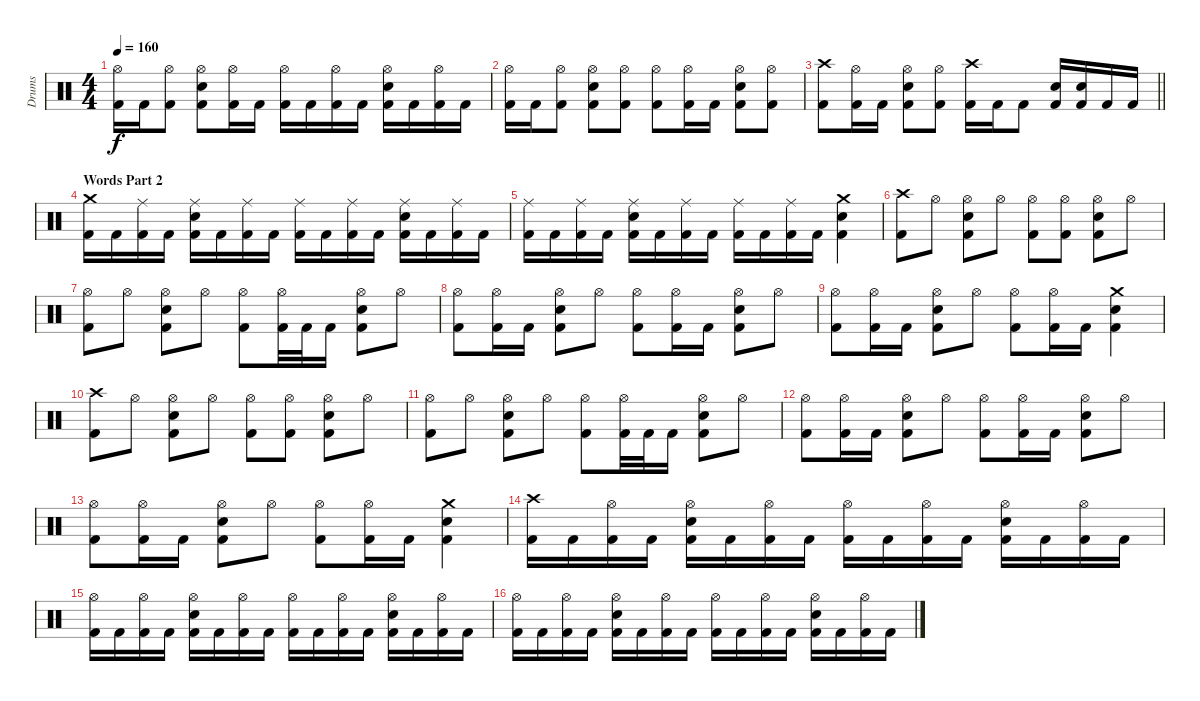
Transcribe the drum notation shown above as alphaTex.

\track ("Drums" "Drums") {instrument percussion}
\staff {score}
\articulation defaults
\ts (4 4)
\tempo 160
\clef neutral
\ks c
("Hi-Hat (open)" "Kick (hit) 2").16{dy f} "Kick (hit) 2".16 ("Hi-Hat (open)" "Kick (hit) 2").8 ("Hi-Hat (open)" "Snare (hit) 2" "Kick (hit) 2").8 ("Hi-Hat (open)" "Kick (hit) 2").16 "Kick (hit) 2".16 ("Hi-Hat (open)" "Kick (hit) 2").16 "Kick (hit) 2".16 ("Hi-Hat (open)" "Kick (hit) 2").16 "Kick (hit) 2".16 ("Hi-Hat (open)" "Snare (hit) 2" "Kick (hit) 2").16 "Kick (hit) 2".16 ("Hi-Hat (open)" "Kick (hit) 2").16 "Kick (hit) 2".16 |
("Hi-Hat (open)" "Kick (hit) 2").16 "Kick (hit) 2".16 ("Hi-Hat (open)" "Kick (hit) 2").8 ("Hi-Hat (open)" "Snare (hit) 2" "Kick (hit) 2").8 ("Hi-Hat (open)" "Kick (hit) 2").8 ("Hi-Hat (open)" "Kick (hit) 2").8 ("Hi-Hat (open)" "Kick (hit) 2").16 "Kick (hit) 2".16 ("Hi-Hat (open)" "Snare (hit) 2" "Kick (hit) 2").8 ("Hi-Hat (open)" "Kick (hit) 2").8 |
\barLineRight lightlight
("Crash high (hit)" "Kick (hit) 2").8 ("Hi-Hat (open)" "Kick (hit) 2").16 "Kick (hit) 2".16 ("Hi-Hat (open)" "Snare (hit) 2" "Kick (hit) 2").8 ("Hi-Hat (open)" "Kick (hit) 2").8 ("Crash high (hit)" "Kick (hit) 2").16 "Kick (hit) 2".16 "Kick (hit) 2".8 ("Snare (hit) 2" "Kick (hit) 2").16 ("Snare (hit) 2" "Kick (hit) 2").16 "Kick (hit) 2".16 "Kick (hit) 2".16 |
\section ("" "Words Part 2")
("Crash medium (hit)" "Kick (hit) 2").16 "Kick (hit) 2".16 ("Ride (middle)" "Kick (hit) 2").16 "Kick (hit) 2".16 ("Ride (middle)" "Snare (hit) 2" "Kick (hit) 2").16 "Kick (hit) 2".16 ("Ride (middle)" "Kick (hit) 2").16 "Kick (hit) 2".16 ("Ride (middle)" "Kick (hit) 2").16 "Kick (hit) 2".16 ("Ride (middle)" "Kick (hit) 2").16 "Kick (hit) 2".16 ("Ride (middle)" "Snare (hit) 2" "Kick (hit) 2").16 "Kick (hit) 2".16 ("Ride (middle)" "Kick (hit) 2").16 "Kick (hit) 2".16 |
("Ride (middle)" "Kick (hit) 2").16 "Kick (hit) 2".16 ("Ride (middle)" "Kick (hit) 2").16 "Kick (hit) 2".16 ("Ride (middle)" "Snare (hit) 2" "Kick (hit) 2").16 "Kick (hit) 2".16 ("Ride (middle)" "Kick (hit) 2").16 "Kick (hit) 2".16 ("Ride (middle)" "Kick (hit) 2").16 "Kick (hit) 2".16 ("Ride (middle)" "Kick (hit) 2").16 "Kick (hit) 2".16 ("Crash medium (hit)" "Snare (hit) 2" "Kick (hit) 2").4 |
("Crash high (hit)" "Kick (hit) 2").8 "Hi-Hat (open)".8 ("Hi-Hat (open)" "Snare (hit) 2" "Kick (hit) 2").8 "Hi-Hat (open)".8 ("Hi-Hat (open)" "Kick (hit) 2").8 ("Hi-Hat (open)" "Kick (hit) 2").8 ("Hi-Hat (open)" "Snare (hit) 2" "Kick (hit) 2").8 "Hi-Hat (open)".8 |
("Hi-Hat (open)" "Kick (hit) 2").8 "Hi-Hat (open)".8 ("Hi-Hat (open)" "Snare (hit) 2" "Kick (hit) 2").8 "Hi-Hat (open)".8 ("Hi-Hat (open)" "Kick (hit) 2").8 ("Hi-Hat (open)" "Kick (hit) 2").32 "Kick (hit) 2".32 "Kick (hit) 2".16 ("Hi-Hat (open)" "Snare (hit) 2" "Kick (hit) 2").8 "Hi-Hat (open)".8 |
("Hi-Hat (open)" "Kick (hit) 2").8 ("Hi-Hat (open)" "Kick (hit) 2").16 "Kick (hit) 2".16 ("Hi-Hat (open)" "Snare (hit) 2" "Kick (hit) 2").8 "Hi-Hat (open)".8 ("Hi-Hat (open)" "Kick (hit) 2").8 ("Hi-Hat (open)" "Kick (hit) 2").16 "Kick (hit) 2".16 ("Hi-Hat (open)" "Snare (hit) 2" "Kick (hit) 2").8 "Hi-Hat (open)".8 |
("Hi-Hat (open)" "Kick (hit) 2").8 ("Hi-Hat (open)" "Kick (hit) 2").16 "Kick (hit) 2".16 ("Hi-Hat (open)" "Snare (hit) 2" "Kick (hit) 2").8 "Hi-Hat (open)".8 ("Hi-Hat (open)" "Kick (hit) 2").8 ("Hi-Hat (open)" "Kick (hit) 2").16 "Kick (hit) 2".16 ("Crash medium (hit)" "Snare (hit) 2" "Kick (hit) 2").4 |
("Crash high (hit)" "Kick (hit) 2").8 "Hi-Hat (open)".8 ("Hi-Hat (open)" "Snare (hit) 2" "Kick (hit) 2").8 "Hi-Hat (open)".8 ("Hi-Hat (open)" "Kick (hit) 2").8 ("Hi-Hat (open)" "Kick (hit) 2").8 ("Hi-Hat (open)" "Snare (hit) 2" "Kick (hit) 2").8 "Hi-Hat (open)".8 |
("Hi-Hat (open)" "Kick (hit) 2").8 "Hi-Hat (open)".8 ("Hi-Hat (open)" "Snare (hit) 2" "Kick (hit) 2").8 "Hi-Hat (open)".8 ("Hi-Hat (open)" "Kick (hit) 2").8 ("Hi-Hat (open)" "Kick (hit) 2").32 "Kick (hit) 2".32 "Kick (hit) 2".16 ("Hi-Hat (open)" "Snare (hit) 2" "Kick (hit) 2").8 "Hi-Hat (open)".8 |
("Hi-Hat (open)" "Kick (hit) 2").8 ("Hi-Hat (open)" "Kick (hit) 2").16 "Kick (hit) 2".16 ("Hi-Hat (open)" "Snare (hit) 2" "Kick (hit) 2").8 "Hi-Hat (open)".8 ("Hi-Hat (open)" "Kick (hit) 2").8 ("Hi-Hat (open)" "Kick (hit) 2").16 "Kick (hit) 2".16 ("Hi-Hat (open)" "Snare (hit) 2" "Kick (hit) 2").8 "Hi-Hat (open)".8 |
("Hi-Hat (open)" "Kick (hit) 2").8 ("Hi-Hat (open)" "Kick (hit) 2").16 "Kick (hit) 2".16 ("Hi-Hat (open)" "Snare (hit) 2" "Kick (hit) 2").8 "Hi-Hat (open)".8 ("Hi-Hat (open)" "Kick (hit) 2").8 ("Hi-Hat (open)" "Kick (hit) 2").16 "Kick (hit) 2".16 ("Crash medium (hit)" "Snare (hit) 2" "Kick (hit) 2").4 |
("Crash high (hit)" "Kick (hit) 2").16 "Kick (hit) 2".16 ("Hi-Hat (open)" "Kick (hit) 2").16 "Kick (hit) 2".16 ("Hi-Hat (open)" "Snare (hit) 2" "Kick (hit) 2").16 "Kick (hit) 2".16 ("Hi-Hat (open)" "Kick (hit) 2").16 "Kick (hit) 2".16 ("Hi-Hat (open)" "Kick (hit) 2").16 "Kick (hit) 2".16 ("Hi-Hat (open)" "Kick (hit) 2").16 "Kick (hit) 2".16 ("Hi-Hat (open)" "Snare (hit) 2" "Kick (hit) 2").16 "Kick (hit) 2".16 ("Hi-Hat (open)" "Kick (hit) 2").16 "Kick (hit) 2".16 |
("Hi-Hat (open)" "Kick (hit) 2").16 "Kick (hit) 2".16 ("Hi-Hat (open)" "Kick (hit) 2").16 "Kick (hit) 2".16 ("Hi-Hat (open)" "Snare (hit) 2" "Kick (hit) 2").16 "Kick (hit) 2".16 ("Hi-Hat (open)" "Kick (hit) 2").16 "Kick (hit) 2".16 ("Hi-Hat (open)" "Kick (hit) 2").16 "Kick (hit) 2".16 ("Hi-Hat (open)" "Kick (hit) 2").16 "Kick (hit) 2".16 ("Hi-Hat (open)" "Snare (hit) 2" "Kick (hit) 2").16 "Kick (hit) 2".16 ("Hi-Hat (open)" "Kick (hit) 2").16 "Kick (hit) 2".16 |
("Hi-Hat (open)" "Kick (hit) 2").16 "Kick (hit) 2".16 ("Hi-Hat (open)" "Kick (hit) 2").16 "Kick (hit) 2".16 ("Hi-Hat (open)" "Snare (hit) 2" "Kick (hit) 2").16 "Kick (hit) 2".16 ("Hi-Hat (open)" "Kick (hit) 2").16 "Kick (hit) 2".16 ("Hi-Hat (open)" "Kick (hit) 2").16 "Kick (hit) 2".16 ("Hi-Hat (open)" "Kick (hit) 2").16 "Kick (hit) 2".16 ("Hi-Hat (open)" "Snare (hit) 2" "Kick (hit) 2").16 "Kick (hit) 2".16 ("Hi-Hat (open)" "Kick (hit) 2").16 "Kick (hit) 2".16
